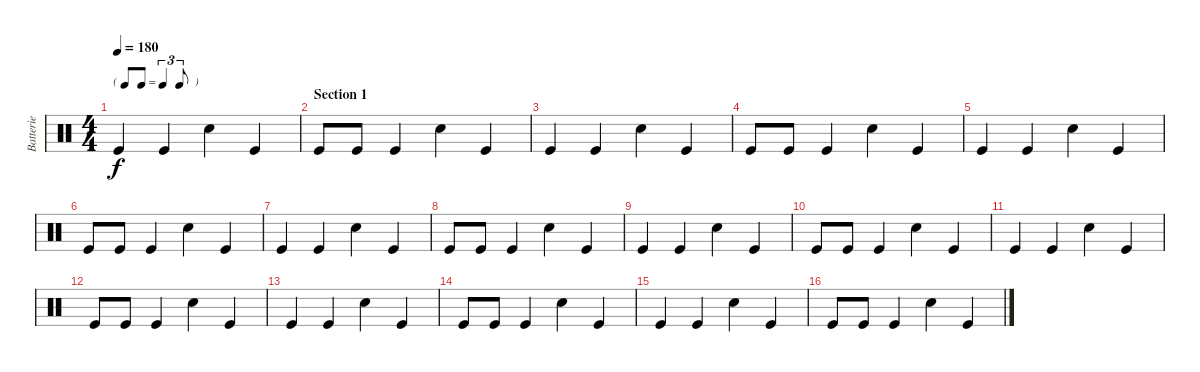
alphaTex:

\track ("Batterie" "Batterie") {instrument percussion}
\staff {score}
\articulation defaults
\ts (4 4)
\tf triplet8th
\tempo 180
\clef neutral
\ks c "Kick (hit)".4{dy f} "Kick (hit)".4 "Electric Snare (hit)".4 "Kick (hit)".4
|
\section ("" "Section 1")
"Kick (hit)".8 "Kick (hit)".8 "Kick (hit)".4 "Electric Snare (hit)".4 "Kick (hit)".4 |
"Kick (hit)".4 "Kick (hit)".4 "Electric Snare (hit)".4 "Kick (hit)".4 |
"Kick (hit)".8 "Kick (hit)".8 "Kick (hit)".4 "Electric Snare (hit)".4 "Kick (hit)".4 |
"Kick (hit)".4 "Kick (hit)".4 "Electric Snare (hit)".4 "Kick (hit)".4 |
"Kick (hit)".8 "Kick (hit)".8 "Kick (hit)".4 "Electric Snare (hit)".4 "Kick (hit)".4 |
"Kick (hit)".4 "Kick (hit)".4 "Electric Snare (hit)".4 "Kick (hit)".4 |
"Kick (hit)".8 "Kick (hit)".8 "Kick (hit)".4 "Electric Snare (hit)".4 "Kick (hit)".4 |
"Kick (hit)".4 "Kick (hit)".4 "Electric Snare (hit)".4 "Kick (hit)".4 |
"Kick (hit)".8 "Kick (hit)".8 "Kick (hit)".4 "Electric Snare (hit)".4 "Kick (hit)".4 |
"Kick (hit)".4 "Kick (hit)".4 "Electric Snare (hit)".4 "Kick (hit)".4 |
"Kick (hit)".8 "Kick (hit)".8 "Kick (hit)".4 "Electric Snare (hit)".4 "Kick (hit)".4 |
"Kick (hit)".4 "Kick (hit)".4 "Electric Snare (hit)".4 "Kick (hit)".4 |
"Kick (hit)".8 "Kick (hit)".8 "Kick (hit)".4 "Electric Snare (hit)".4 "Kick (hit)".4 |
"Kick (hit)".4 "Kick (hit)".4 "Electric Snare (hit)".4 "Kick (hit)".4 |
"Kick (hit)".8 "Kick (hit)".8 "Kick (hit)".4 "Electric Snare (hit)".4 "Kick (hit)".4
